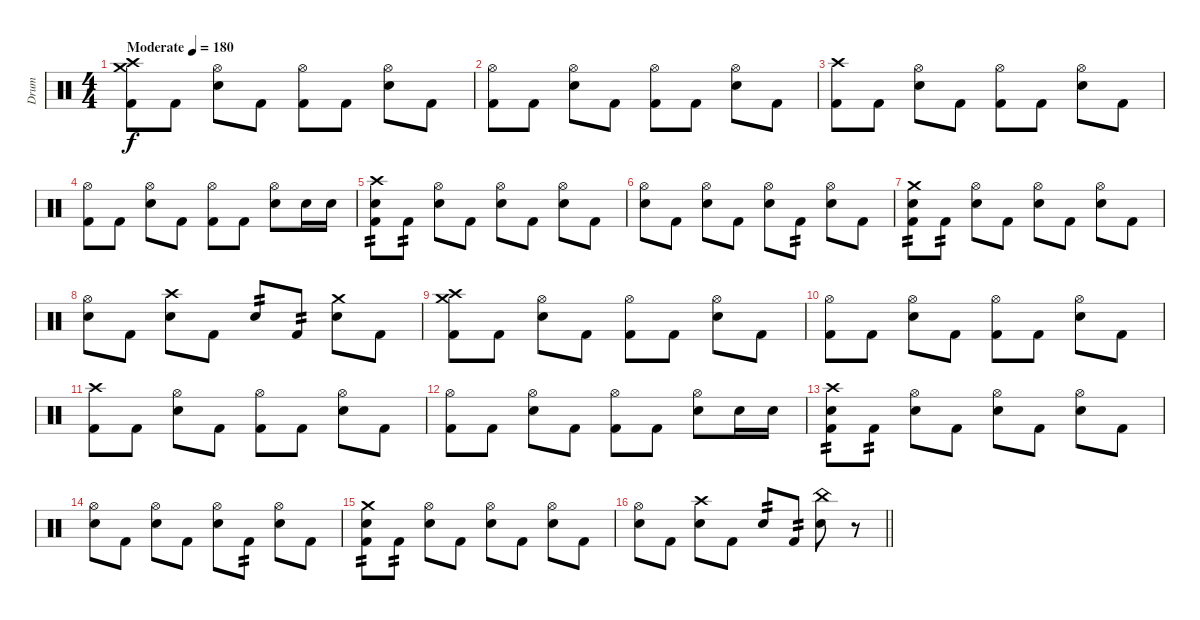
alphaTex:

\track ("Drum" "Drum") {instrument percussion}
\staff {score}
\articulation defaults
\ts (4 4)
\tempo (180 "Moderate")
\clef neutral
\ks c
("Crash medium (hit)" "Crash high (hit)" "Kick (hit) 2").8{dy f} "Kick (hit) 2".8 ("Hi-Hat (open)" "Snare (hit) 2").8 "Kick (hit) 2".8 ("Hi-Hat (open)" "Kick (hit) 2").8 "Kick (hit) 2".8 ("Hi-Hat (open)" "Snare (hit) 2").8 "Kick (hit) 2".8 |
("Hi-Hat (open)" "Kick (hit) 2").8 "Kick (hit) 2".8 ("Hi-Hat (open)" "Snare (hit) 2").8 "Kick (hit) 2".8 ("Hi-Hat (open)" "Kick (hit) 2").8 "Kick (hit) 2".8 ("Hi-Hat (open)" "Snare (hit) 2").8 "Kick (hit) 2".8 |
("Crash high (hit)" "Kick (hit) 2").8 "Kick (hit) 2".8 ("Hi-Hat (open)" "Snare (hit) 2").8 "Kick (hit) 2".8 ("Hi-Hat (open)" "Kick (hit) 2").8 "Kick (hit) 2".8 ("Hi-Hat (open)" "Snare (hit) 2").8 "Kick (hit) 2".8 |
("Hi-Hat (open)" "Kick (hit) 2").8 "Kick (hit) 2".8 ("Hi-Hat (open)" "Snare (hit) 2").8 "Kick (hit) 2".8 ("Hi-Hat (open)" "Kick (hit) 2").8 "Kick (hit) 2".8 ("Hi-Hat (open)" "Snare (hit) 2").8 "Snare (hit) 2".16 "Snare (hit) 2".16 |
("Crash high (hit)" "Snare (hit) 2" "Kick (hit) 2").8{tp 2} "Kick (hit) 2".8{tp 2} ("Hi-Hat (open)" "Snare (hit) 2").8 "Kick (hit) 2".8 ("Hi-Hat (open)" "Snare (hit) 2").8 "Kick (hit) 2".8 ("Hi-Hat (open)" "Snare (hit) 2").8 "Kick (hit) 2".8 |
("Hi-Hat (open)" "Snare (hit) 2").8 "Kick (hit) 2".8 ("Hi-Hat (open)" "Snare (hit) 2").8 "Kick (hit) 2".8 ("Hi-Hat (open)" "Snare (hit) 2").8 "Kick (hit) 2".8{tp 2} ("Hi-Hat (open)" "Snare (hit) 2").8 "Kick (hit) 2".8 |
("Crash medium (hit)" "Snare (hit) 2" "Kick (hit) 2").8{tp 2} "Kick (hit) 2".8{tp 2} ("Hi-Hat (open)" "Snare (hit) 2").8 "Kick (hit) 2".8 ("Hi-Hat (open)" "Snare (hit) 2").8 "Kick (hit) 2".8 ("Hi-Hat (open)" "Snare (hit) 2").8 "Kick (hit) 2".8 |
("Hi-Hat (open)" "Snare (hit) 2").8 "Kick (hit) 2".8 ("Crash high (hit)" "Snare (hit) 2").8 "Kick (hit) 2".8 "Snare (hit) 2".8{tp 2} "Kick (hit) 2".8{tp 2} ("Crash medium (hit)" "Snare (hit) 2").8 "Kick (hit) 2".8 |
("Crash medium (hit)" "Crash high (hit)" "Kick (hit) 2").8 "Kick (hit) 2".8 ("Hi-Hat (open)" "Snare (hit) 2").8 "Kick (hit) 2".8 ("Hi-Hat (open)" "Kick (hit) 2").8 "Kick (hit) 2".8 ("Hi-Hat (open)" "Snare (hit) 2").8 "Kick (hit) 2".8 |
("Hi-Hat (open)" "Kick (hit) 2").8 "Kick (hit) 2".8 ("Hi-Hat (open)" "Snare (hit) 2").8 "Kick (hit) 2".8 ("Hi-Hat (open)" "Kick (hit) 2").8 "Kick (hit) 2".8 ("Hi-Hat (open)" "Snare (hit) 2").8 "Kick (hit) 2".8 |
("Crash high (hit)" "Kick (hit) 2").8 "Kick (hit) 2".8 ("Hi-Hat (open)" "Snare (hit) 2").8 "Kick (hit) 2".8 ("Hi-Hat (open)" "Kick (hit) 2").8 "Kick (hit) 2".8 ("Hi-Hat (open)" "Snare (hit) 2").8 "Kick (hit) 2".8 |
("Hi-Hat (open)" "Kick (hit) 2").8 "Kick (hit) 2".8 ("Hi-Hat (open)" "Snare (hit) 2").8 "Kick (hit) 2".8 ("Hi-Hat (open)" "Kick (hit) 2").8 "Kick (hit) 2".8 ("Hi-Hat (open)" "Snare (hit) 2").8 "Snare (hit) 2".16 "Snare (hit) 2".16 |
("Crash high (hit)" "Snare (hit) 2" "Kick (hit) 2").8{tp 2} "Kick (hit) 2".8{tp 2} ("Hi-Hat (open)" "Snare (hit) 2").8 "Kick (hit) 2".8 ("Hi-Hat (open)" "Snare (hit) 2").8 "Kick (hit) 2".8 ("Hi-Hat (open)" "Snare (hit) 2").8 "Kick (hit) 2".8 |
("Hi-Hat (open)" "Snare (hit) 2").8 "Kick (hit) 2".8 ("Hi-Hat (open)" "Snare (hit) 2").8 "Kick (hit) 2".8 ("Hi-Hat (open)" "Snare (hit) 2").8 "Kick (hit) 2".8{tp 2} ("Hi-Hat (open)" "Snare (hit) 2").8 "Kick (hit) 2".8 |
("Crash medium (hit)" "Snare (hit) 2" "Kick (hit) 2").8{tp 2} "Kick (hit) 2".8{tp 2} ("Hi-Hat (open)" "Snare (hit) 2").8 "Kick (hit) 2".8 ("Hi-Hat (open)" "Snare (hit) 2").8 "Kick (hit) 2".8 ("Hi-Hat (open)" "Snare (hit) 2").8 "Kick (hit) 2".8 |
\barLineRight lightlight
("Hi-Hat (open)" "Snare (hit) 2").8 "Kick (hit) 2".8 ("Crash high (hit)" "Snare (hit) 2").8 "Kick (hit) 2".8 "Snare (hit) 2".8{tp 2} "Kick (hit) 2".8{tp 2} ("China (hit)" "Snare (hit) 2").8 r.8
